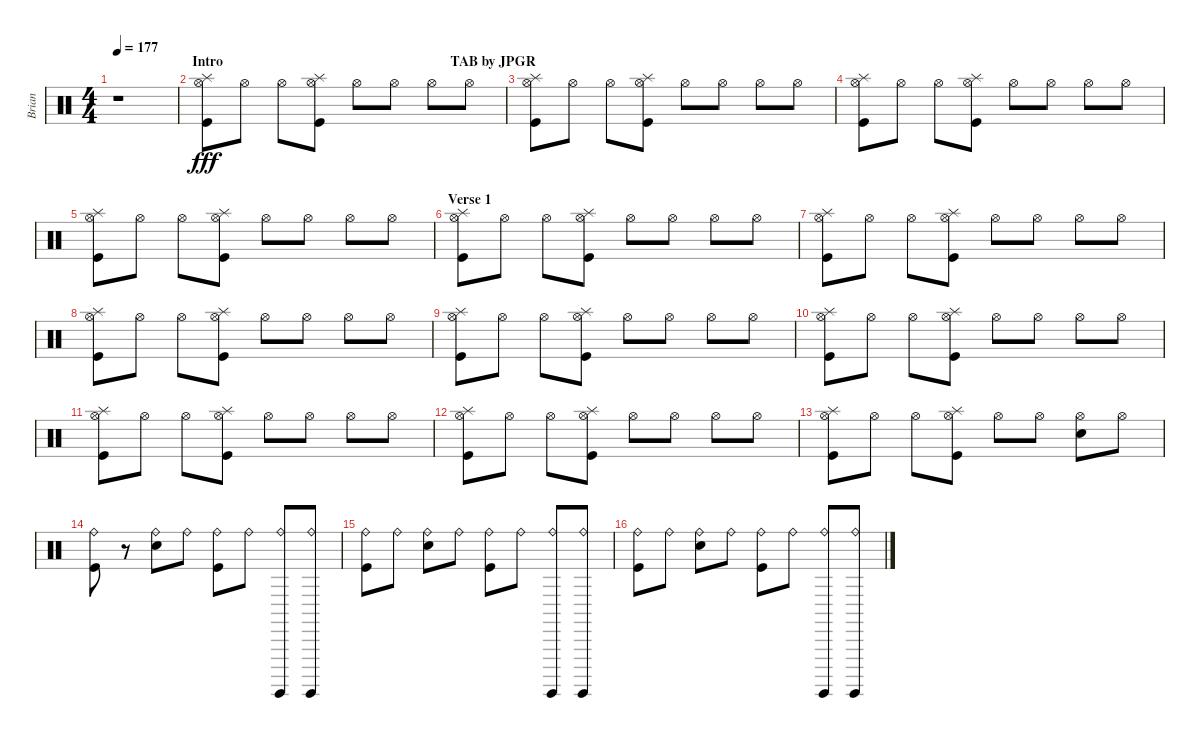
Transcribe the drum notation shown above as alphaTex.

\track ("Brian" "Brian") {instrument percussion}
\staff {score}
\articulation defaults
\ts (4 4)
\tempo 177
\clef neutral
\ks c
r.1{dy fff} |
\section ("" "Intro                                                                 TAB by JPGR")
("Splash (hit)" "Hi-Hat (open)" "Kick (hit)").8 "Hi-Hat (open)".8 "Hi-Hat (open)".8 ("Splash (hit)" "Hi-Hat (open)" "Kick (hit)").8 "Hi-Hat (open)".8 "Hi-Hat (open)".8 "Hi-Hat (open)".8 "Hi-Hat (open)".8 |
("Splash (hit)" "Hi-Hat (open)" "Kick (hit)").8 "Hi-Hat (open)".8 "Hi-Hat (open)".8 ("Splash (hit)" "Hi-Hat (open)" "Kick (hit)").8 "Hi-Hat (open)".8 "Hi-Hat (open)".8 "Hi-Hat (open)".8 "Hi-Hat (open)".8 |
("Splash (hit)" "Hi-Hat (open)" "Kick (hit)").8 "Hi-Hat (open)".8 "Hi-Hat (open)".8 ("Splash (hit)" "Hi-Hat (open)" "Kick (hit)").8 "Hi-Hat (open)".8 "Hi-Hat (open)".8 "Hi-Hat (open)".8 "Hi-Hat (open)".8 |
("Splash (hit)" "Hi-Hat (open)" "Kick (hit)").8 "Hi-Hat (open)".8 "Hi-Hat (open)".8 ("Splash (hit)" "Hi-Hat (open)" "Kick (hit)").8 "Hi-Hat (open)".8 "Hi-Hat (open)".8 "Hi-Hat (open)".8 "Hi-Hat (open)".8 |
\section ("" "Verse 1")
("Splash (hit)" "Hi-Hat (open)" "Kick (hit)").8 "Hi-Hat (open)".8 "Hi-Hat (open)".8 ("Splash (hit)" "Hi-Hat (open)" "Kick (hit)").8 "Hi-Hat (open)".8 "Hi-Hat (open)".8 "Hi-Hat (open)".8 "Hi-Hat (open)".8 |
("Splash (hit)" "Hi-Hat (open)" "Kick (hit)").8 "Hi-Hat (open)".8 "Hi-Hat (open)".8 ("Splash (hit)" "Hi-Hat (open)" "Kick (hit)").8 "Hi-Hat (open)".8 "Hi-Hat (open)".8 "Hi-Hat (open)".8 "Hi-Hat (open)".8 |
("Splash (hit)" "Hi-Hat (open)" "Kick (hit)").8 "Hi-Hat (open)".8 "Hi-Hat (open)".8 ("Splash (hit)" "Hi-Hat (open)" "Kick (hit)").8 "Hi-Hat (open)".8 "Hi-Hat (open)".8 "Hi-Hat (open)".8 "Hi-Hat (open)".8 |
("Splash (hit)" "Hi-Hat (open)" "Kick (hit)").8 "Hi-Hat (open)".8 "Hi-Hat (open)".8 ("Splash (hit)" "Hi-Hat (open)" "Kick (hit)").8 "Hi-Hat (open)".8 "Hi-Hat (open)".8 "Hi-Hat (open)".8 "Hi-Hat (open)".8 |
("Splash (hit)" "Hi-Hat (open)" "Kick (hit)").8 "Hi-Hat (open)".8 "Hi-Hat (open)".8 ("Splash (hit)" "Hi-Hat (open)" "Kick (hit)").8 "Hi-Hat (open)".8 "Hi-Hat (open)".8 "Hi-Hat (open)".8 "Hi-Hat (open)".8 |
("Splash (hit)" "Hi-Hat (open)" "Kick (hit)").8 "Hi-Hat (open)".8 "Hi-Hat (open)".8 ("Splash (hit)" "Hi-Hat (open)" "Kick (hit)").8 "Hi-Hat (open)".8 "Hi-Hat (open)".8 "Hi-Hat (open)".8 "Hi-Hat (open)".8 |
("Splash (hit)" "Hi-Hat (open)" "Kick (hit)").8 "Hi-Hat (open)".8 "Hi-Hat (open)".8 ("Splash (hit)" "Hi-Hat (open)" "Kick (hit)").8 "Hi-Hat (open)".8 "Hi-Hat (open)".8 "Hi-Hat (open)".8 "Hi-Hat (open)".8 |
("Splash (hit)" "Hi-Hat (open)" "Kick (hit)").8 "Hi-Hat (open)".8 "Hi-Hat (open)".8 ("Splash (hit)" "Hi-Hat (open)" "Kick (hit)").8 "Hi-Hat (open)".8 "Hi-Hat (open)".8 ("Hi-Hat (open)" "Electric Snare (hit)").8 "Hi-Hat (open)".8 |
("Ride (bell)" "Kick (hit)").8 r.8 ("Ride (bell)" "Electric Snare (hit)").8 "Ride (bell)".8 ("Ride (bell)" "Kick (hit)").8 "Ride (bell)".8 ("Surdo (hit)" "Ride (bell)").8 ("Surdo (hit)" "Ride (bell)").8 |
("Ride (bell)" "Kick (hit)").8 "Ride (bell)".8 ("Ride (bell)" "Electric Snare (hit)").8 "Ride (bell)".8 ("Ride (bell)" "Kick (hit)").8 "Ride (bell)".8 ("Surdo (hit)" "Ride (bell)").8 ("Surdo (hit)" "Ride (bell)").8 |
("Ride (bell)" "Kick (hit)").8 "Ride (bell)".8 ("Ride (bell)" "Electric Snare (hit)").8 "Ride (bell)".8 ("Ride (bell)" "Kick (hit)").8 "Ride (bell)".8 ("Surdo (hit)" "Ride (bell)").8 ("Surdo (hit)" "Ride (bell)").8
